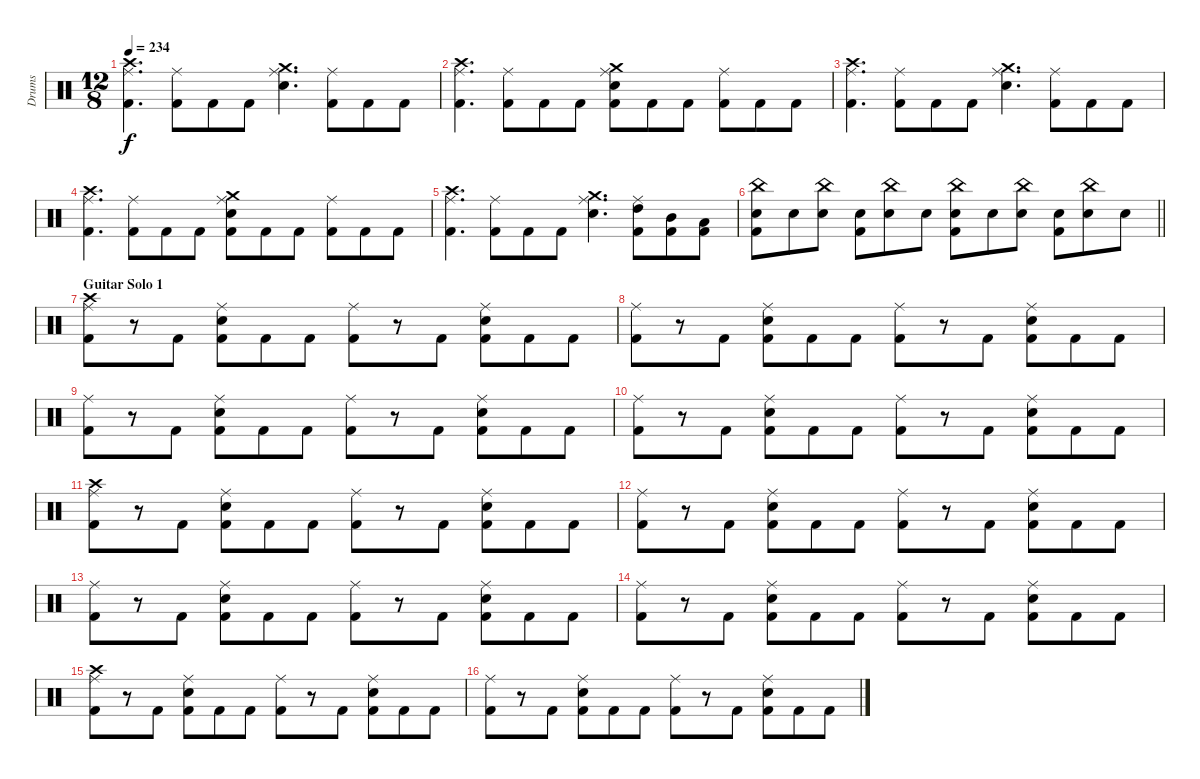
\track ("Drums" "Drums") {instrument percussion}
\staff {score}
\articulation defaults
\ts (12 8)
\tempo 234
\clef neutral
\ks c
("Crash high (hit)" "Ride (middle)" "Kick (hit) 2").4{d dy f} ("Ride (middle)" "Kick (hit) 2").8 "Kick (hit) 2".8 "Kick (hit) 2".8 ("Crash medium (hit)" "Ride (middle)" "Snare (hit) 2").4{d} ("Ride (middle)" "Kick (hit) 2").8 "Kick (hit) 2".8 "Kick (hit) 2".8 |
("Crash high (hit)" "Ride (middle)" "Kick (hit) 2").4{d} ("Ride (middle)" "Kick (hit) 2").8 "Kick (hit) 2".8 "Kick (hit) 2".8 ("Ride (middle)" "Crash medium (hit)" "Snare (hit) 2" "Kick (hit) 2").8 "Kick (hit) 2".8 "Kick (hit) 2".8 ("Ride (middle)" "Kick (hit) 2").8 "Kick (hit) 2".8 "Kick (hit) 2".8 |
("Crash high (hit)" "Ride (middle)" "Kick (hit) 2").4{d} ("Ride (middle)" "Kick (hit) 2").8 "Kick (hit) 2".8 "Kick (hit) 2".8 ("Crash medium (hit)" "Ride (middle)" "Snare (hit) 2").4{d} ("Ride (middle)" "Kick (hit) 2").8 "Kick (hit) 2".8 "Kick (hit) 2".8 |
("Crash high (hit)" "Ride (middle)" "Kick (hit) 2").4{d} ("Ride (middle)" "Kick (hit) 2").8 "Kick (hit) 2".8 "Kick (hit) 2".8 ("Ride (middle)" "Crash medium (hit)" "Snare (hit) 2" "Kick (hit) 2").8 "Kick (hit) 2".8 "Kick (hit) 2".8 ("Ride (middle)" "Kick (hit) 2").8 "Kick (hit) 2".8 "Kick (hit) 2".8 |
("Crash high (hit)" "Ride (middle)" "Kick (hit) 2").4{d} ("Ride (middle)" "Kick (hit) 2").8 "Kick (hit) 2".8 "Kick (hit) 2".8 ("Crash medium (hit)" "Ride (middle)" "Snare (hit) 2").4{d} ("Ride (middle)" "High Tom (hit)" "Kick (hit) 2").8 ("Mid Tom (hit)" "Kick (hit) 2").8 ("Low Tom (hit)" "Kick (hit) 2").8 |
\barLineRight lightlight
("China (hit)" "Snare (hit) 2" "Kick (hit) 2").8 "Snare (hit) 2".8 ("China (hit)" "Snare (hit) 2").8 ("Snare (hit) 2" "Kick (hit) 2").8 ("China (hit)" "Snare (hit) 2").8 "Snare (hit) 2".8 ("China (hit)" "Snare (hit) 2" "Kick (hit) 2").8 "Snare (hit) 2".8 ("China (hit)" "Snare (hit) 2").8 ("Snare (hit) 2" "Kick (hit) 2").8 ("China (hit)" "Snare (hit) 2").8 "Snare (hit) 2".8 |
\section ("" "Guitar Solo 1")
("Crash high (hit)" "Ride (middle)" "Kick (hit) 2").8 r.8 "Kick (hit) 2".8 ("Ride (middle)" "Snare (hit) 2" "Kick (hit) 2").8 "Kick (hit) 2".8 "Kick (hit) 2".8 ("Ride (middle)" "Kick (hit) 2").8 r.8 "Kick (hit) 2".8 ("Ride (middle)" "Snare (hit) 2" "Kick (hit) 2").8 "Kick (hit) 2".8 "Kick (hit) 2".8 |
("Ride (middle)" "Kick (hit) 2").8 r.8 "Kick (hit) 2".8 ("Ride (middle)" "Snare (hit) 2" "Kick (hit) 2").8 "Kick (hit) 2".8 "Kick (hit) 2".8 ("Ride (middle)" "Kick (hit) 2").8 r.8 "Kick (hit) 2".8 ("Ride (middle)" "Snare (hit) 2" "Kick (hit) 2").8 "Kick (hit) 2".8 "Kick (hit) 2".8 |
("Ride (middle)" "Kick (hit) 2").8 r.8 "Kick (hit) 2".8 ("Ride (middle)" "Snare (hit) 2" "Kick (hit) 2").8 "Kick (hit) 2".8 "Kick (hit) 2".8 ("Ride (middle)" "Kick (hit) 2").8 r.8 "Kick (hit) 2".8 ("Ride (middle)" "Snare (hit) 2" "Kick (hit) 2").8 "Kick (hit) 2".8 "Kick (hit) 2".8 |
("Ride (middle)" "Kick (hit) 2").8 r.8 "Kick (hit) 2".8 ("Ride (middle)" "Snare (hit) 2" "Kick (hit) 2").8 "Kick (hit) 2".8 "Kick (hit) 2".8 ("Ride (middle)" "Kick (hit) 2").8 r.8 "Kick (hit) 2".8 ("Ride (middle)" "Snare (hit) 2" "Kick (hit) 2").8 "Kick (hit) 2".8 "Kick (hit) 2".8 |
("Crash high (hit)" "Ride (middle)" "Kick (hit) 2").8 r.8 "Kick (hit) 2".8 ("Ride (middle)" "Snare (hit) 2" "Kick (hit) 2").8 "Kick (hit) 2".8 "Kick (hit) 2".8 ("Ride (middle)" "Kick (hit) 2").8 r.8 "Kick (hit) 2".8 ("Ride (middle)" "Snare (hit) 2" "Kick (hit) 2").8 "Kick (hit) 2".8 "Kick (hit) 2".8 |
("Ride (middle)" "Kick (hit) 2").8 r.8 "Kick (hit) 2".8 ("Ride (middle)" "Snare (hit) 2" "Kick (hit) 2").8 "Kick (hit) 2".8 "Kick (hit) 2".8 ("Ride (middle)" "Kick (hit) 2").8 r.8 "Kick (hit) 2".8 ("Ride (middle)" "Snare (hit) 2" "Kick (hit) 2").8 "Kick (hit) 2".8 "Kick (hit) 2".8 |
("Ride (middle)" "Kick (hit) 2").8 r.8 "Kick (hit) 2".8 ("Ride (middle)" "Snare (hit) 2" "Kick (hit) 2").8 "Kick (hit) 2".8 "Kick (hit) 2".8 ("Ride (middle)" "Kick (hit) 2").8 r.8 "Kick (hit) 2".8 ("Ride (middle)" "Snare (hit) 2" "Kick (hit) 2").8 "Kick (hit) 2".8 "Kick (hit) 2".8 |
("Ride (middle)" "Kick (hit) 2").8 r.8 "Kick (hit) 2".8 ("Ride (middle)" "Snare (hit) 2" "Kick (hit) 2").8 "Kick (hit) 2".8 "Kick (hit) 2".8 ("Ride (middle)" "Kick (hit) 2").8 r.8 "Kick (hit) 2".8 ("Ride (middle)" "Snare (hit) 2" "Kick (hit) 2").8 "Kick (hit) 2".8 "Kick (hit) 2".8 |
("Crash high (hit)" "Ride (middle)" "Kick (hit) 2").8 r.8 "Kick (hit) 2".8 ("Ride (middle)" "Snare (hit) 2" "Kick (hit) 2").8 "Kick (hit) 2".8 "Kick (hit) 2".8 ("Ride (middle)" "Kick (hit) 2").8 r.8 "Kick (hit) 2".8 ("Ride (middle)" "Snare (hit) 2" "Kick (hit) 2").8 "Kick (hit) 2".8 "Kick (hit) 2".8 |
("Ride (middle)" "Kick (hit) 2").8 r.8 "Kick (hit) 2".8 ("Ride (middle)" "Snare (hit) 2" "Kick (hit) 2").8 "Kick (hit) 2".8 "Kick (hit) 2".8 ("Ride (middle)" "Kick (hit) 2").8 r.8 "Kick (hit) 2".8 ("Ride (middle)" "Snare (hit) 2" "Kick (hit) 2").8 "Kick (hit) 2".8 "Kick (hit) 2".8
